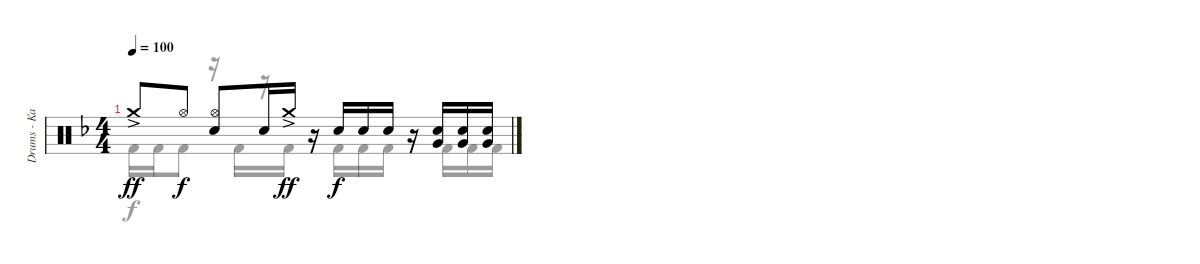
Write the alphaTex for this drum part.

\track ("Drums - Kai" "Drums - Ka") {instrument percussion}
\staff {score}
\articulation defaults
\voice
\ts (4 4)
\tempo 100
\clef neutral
\ks f "Crash medium (hit)"{ac}.8{dy ff} "Hi-Hat (open)".8{dy f}
("Hi-Hat (open)" "Electric Snare (hit)").8 "Electric Snare (hit)".16 "Crash medium (hit)"{ac}.16{dy ff} r.16 "Electric Snare (hit)".16{dy f} "Electric Snare (hit)".16 "Electric Snare (hit)".16 r.16 ("Very Low Tom (hit)" "Electric Snare (hit)").16 ("Very Low Tom (hit)" "Electric Snare (hit)").16 ("Very Low Tom (hit)" "Electric Snare (hit)").16
\voice
\clef neutral
\ottava regular
\simile none
\ks f "Kick (hit) 2".16{dy f} "Kick (hit) 2".16 "Kick (hit) 2".8
r.16 "Kick (hit) 2".16 r.16 "Kick (hit) 2".16 r.16 "Kick (hit) 2".16 "Kick (hit) 2".16 "Kick (hit) 2".16 r.16 "Kick (hit) 2".16 "Kick (hit) 2".16 "Kick (hit) 2".16
